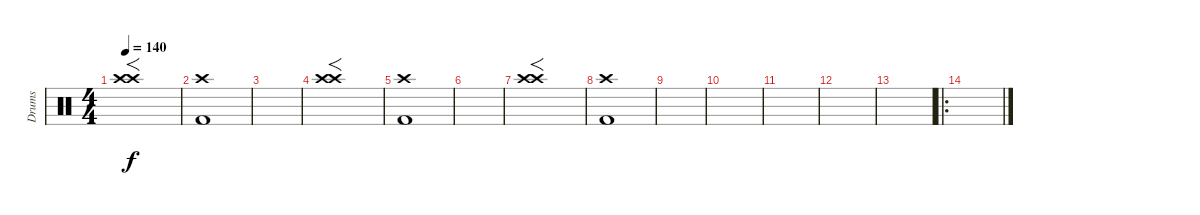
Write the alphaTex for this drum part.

\track ("Drums" "Drums") {instrument percussion}
\staff {score}
\articulation defaults
\ts (4 4)
\tempo 140
\clef neutral
\ks c
("Crash high (hit)" "Crash high (hit)").1{f dy f} |
("Kick (hit) 2" "Crash high (hit)").1 |
|
("Crash high (hit)" "Crash high (hit)").1{f} |
("Kick (hit) 2" "Crash high (hit)").1 |
|
("Crash high (hit)" "Crash high (hit)").1{f} |
("Kick (hit) 2" "Crash high (hit)").1 |
|
|
|
|
|
\ro
